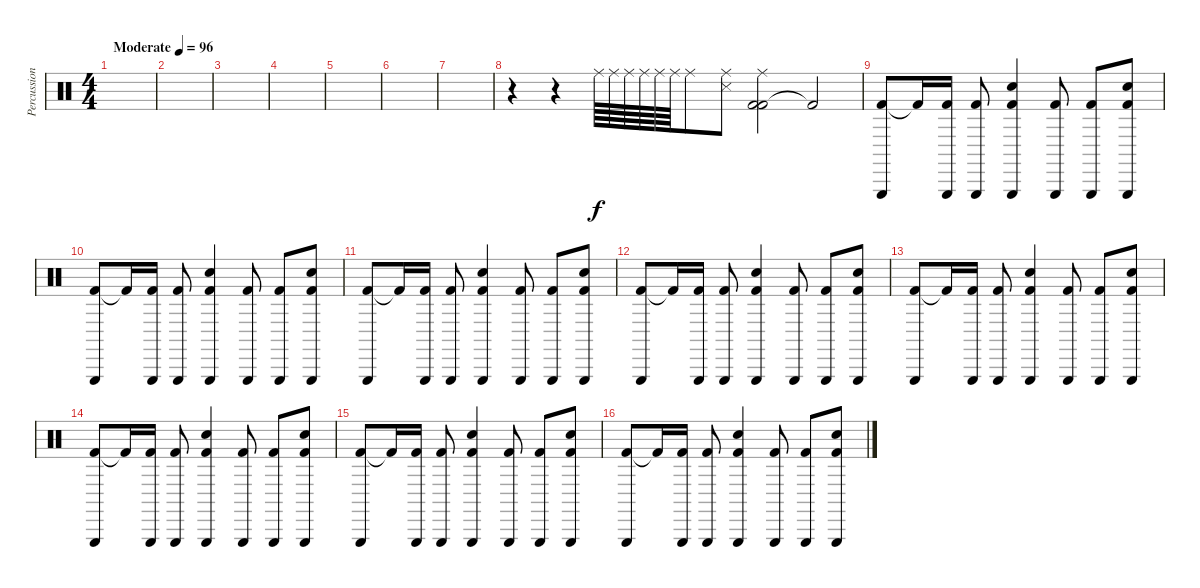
\track ("Percussion" "Percussion") {instrument percussion}
\staff {score}
\articulation defaults
\ts (4 4)
\tempo (96 "Moderate")
\clef neutral
\ks c
|
|
|
|
|
|
|
r.4 r.4 "Ride (middle)".64 "Ride (middle)".64 "Ride (middle)".64 "Ride (middle)".64 "Ride (middle)".64 "Ride (middle)".64 "Ride (middle)".8 ("Snare (side stick) 3" "Ride (middle)").8 ("Kick (hit) 2" "Kick (hit) 2" "Ride (middle)").2 "Kick (hit) 2"{t}.2 |
("Kick (hit) 2" "Triangle (hit)").8 "Kick (hit) 2"{t}.16 ("Kick (hit) 2" "Triangle (hit)").16 ("Kick (hit) 2" "Triangle (hit)").8 ("Kick (hit) 2" "Snare (hit) 2" "Triangle (hit)").4 ("Kick (hit) 2" "Triangle (hit)").8 ("Kick (hit) 2" "Triangle (hit)").8 ("Kick (hit) 2" "Snare (hit) 2" "Triangle (hit)").8 |
("Kick (hit) 2" "Triangle (hit)").8 "Kick (hit) 2"{t}.16 ("Kick (hit) 2" "Triangle (hit)").16 ("Kick (hit) 2" "Triangle (hit)").8 ("Kick (hit) 2" "Snare (hit) 2" "Triangle (hit)").4 ("Kick (hit) 2" "Triangle (hit)").8 ("Kick (hit) 2" "Triangle (hit)").8 ("Kick (hit) 2" "Snare (hit) 2" "Triangle (hit)").8 |
("Kick (hit) 2" "Triangle (hit)").8 "Kick (hit) 2"{t}.16 ("Kick (hit) 2" "Triangle (hit)").16 ("Kick (hit) 2" "Triangle (hit)").8 ("Kick (hit) 2" "Snare (hit) 2" "Triangle (hit)").4 ("Kick (hit) 2" "Triangle (hit)").8 ("Kick (hit) 2" "Triangle (hit)").8 ("Kick (hit) 2" "Snare (hit) 2" "Triangle (hit)").8 |
("Kick (hit) 2" "Triangle (hit)").8 "Kick (hit) 2"{t}.16 ("Kick (hit) 2" "Triangle (hit)").16 ("Kick (hit) 2" "Triangle (hit)").8 ("Kick (hit) 2" "Snare (hit) 2" "Triangle (hit)").4 ("Kick (hit) 2" "Triangle (hit)").8 ("Kick (hit) 2" "Triangle (hit)").8 ("Kick (hit) 2" "Snare (hit) 2" "Triangle (hit)").8 |
("Kick (hit) 2" "Triangle (hit)").8 "Kick (hit) 2"{t}.16 ("Kick (hit) 2" "Triangle (hit)").16 ("Kick (hit) 2" "Triangle (hit)").8 ("Kick (hit) 2" "Snare (hit) 2" "Triangle (hit)").4 ("Kick (hit) 2" "Triangle (hit)").8 ("Kick (hit) 2" "Triangle (hit)").8 ("Kick (hit) 2" "Snare (hit) 2" "Triangle (hit)").8 |
("Kick (hit) 2" "Triangle (hit)").8 "Kick (hit) 2"{t}.16 ("Kick (hit) 2" "Triangle (hit)").16 ("Kick (hit) 2" "Triangle (hit)").8 ("Kick (hit) 2" "Snare (hit) 2" "Triangle (hit)").4 ("Kick (hit) 2" "Triangle (hit)").8 ("Kick (hit) 2" "Triangle (hit)").8 ("Kick (hit) 2" "Snare (hit) 2" "Triangle (hit)").8 |
("Kick (hit) 2" "Triangle (hit)").8 "Kick (hit) 2"{t}.16 ("Kick (hit) 2" "Triangle (hit)").16 ("Kick (hit) 2" "Triangle (hit)").8 ("Kick (hit) 2" "Snare (hit) 2" "Triangle (hit)").4 ("Kick (hit) 2" "Triangle (hit)").8 ("Kick (hit) 2" "Triangle (hit)").8 ("Kick (hit) 2" "Snare (hit) 2" "Triangle (hit)").8 |
("Kick (hit) 2" "Triangle (hit)").8 "Kick (hit) 2"{t}.16 ("Kick (hit) 2" "Triangle (hit)").16 ("Kick (hit) 2" "Triangle (hit)").8 ("Kick (hit) 2" "Snare (hit) 2" "Triangle (hit)").4 ("Kick (hit) 2" "Triangle (hit)").8 ("Kick (hit) 2" "Triangle (hit)").8 ("Kick (hit) 2" "Snare (hit) 2" "Triangle (hit)").8
